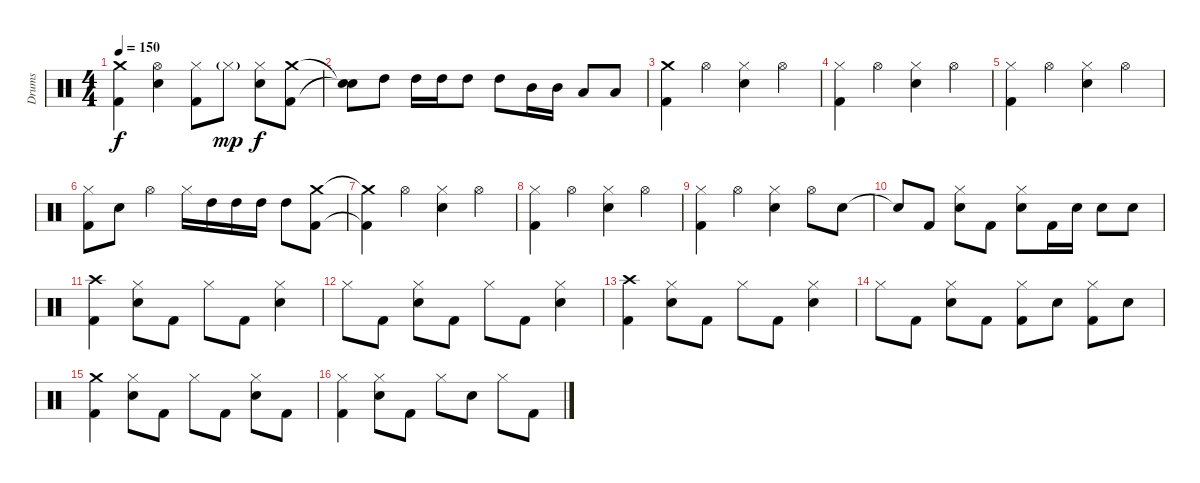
\track ("Drums" "Drums") {instrument percussion}
\staff {score}
\articulation defaults
\ts (4 4)
\tempo 150
\clef neutral
\ks c
("Crash medium (hit)" "Kick (hit) 2").4{dy f} ("Hi-Hat (open)" "Electric Snare (hit)").4 ("Hi-Hat (closed)" "Kick (hit) 2").8 "Hi-Hat (closed)"{g}.8{dy mp} ("Hi-Hat (closed)" "Electric Snare (hit)").8{dy f} ("Crash medium (hit)" "Kick (hit) 2").8 |
("Snare (hit)"{t} "Snare (hit)"{t}).8 "High Tom (hit)".8 "High Tom (hit)".16 "High Tom (hit)".16 "High Tom (hit)".8 "High Tom (hit)".8 "Mid Tom (hit)".16 "Mid Tom (hit)".16 "Low Tom (hit)".8 "Low Tom (hit)".8 |
("Crash medium (hit)" "Kick (hit) 2").4 "Hi-Hat (open)".4 ("Hi-Hat (closed)" "Electric Snare (hit)").4 "Hi-Hat (open)".4 |
("Hi-Hat (closed)" "Kick (hit) 2").4 "Hi-Hat (open)".4 ("Hi-Hat (closed)" "Electric Snare (hit)").4 "Hi-Hat (open)".4 |
("Hi-Hat (closed)" "Kick (hit) 2").4 "Hi-Hat (open)".4 ("Hi-Hat (closed)" "Electric Snare (hit)").4 "Hi-Hat (open)".4 |
("Hi-Hat (closed)" "Kick (hit) 2").8 "Electric Snare (hit)".8 "Hi-Hat (open)".4 "Hi-Hat (closed)".16 "High Tom (hit)".16 "High Tom (hit)".16 "High Tom (hit)".16 "High Tom (hit)".8 ("Crash medium (hit)" "Kick (hit) 2").8 |
("Crash medium (hit)"{t} "Kick (hit) 2"{t}).4 "Hi-Hat (open)".4 ("Hi-Hat (closed)" "Electric Snare (hit)").4 "Hi-Hat (open)".4 |
("Hi-Hat (closed)" "Kick (hit) 2").4 "Hi-Hat (open)".4 ("Hi-Hat (closed)" "Electric Snare (hit)").4 "Hi-Hat (open)".4 |
("Hi-Hat (closed)" "Kick (hit) 2").4 "Hi-Hat (open)".4 ("Hi-Hat (closed)" "Electric Snare (hit)").4 "Hi-Hat (open)".8 "Electric Snare (hit)".8 |
"Snare (hit)"{t}.8 "Kick (hit) 2".8 ("Electric Snare (hit)" "Hi-Hat (closed)").8 "Kick (hit) 2".8 ("Electric Snare (hit)" "Hi-Hat (closed)").8 "Kick (hit) 2".16 "Electric Snare (hit)".16 "Electric Snare (hit)".8 "Electric Snare (hit)".8 |
("Crash high (hit)" "Kick (hit) 2").4 ("Hi-Hat (closed)" "Electric Snare (hit)").8 "Kick (hit) 2".8 "Hi-Hat (closed)".8 "Kick (hit) 2".8 ("Hi-Hat (closed)" "Electric Snare (hit)").4 |
"Hi-Hat (closed)".8 "Kick (hit) 2".8 ("Hi-Hat (closed)" "Electric Snare (hit)").8 "Kick (hit) 2".8 "Hi-Hat (closed)".8 "Kick (hit) 2".8 ("Hi-Hat (closed)" "Electric Snare (hit)").4 |
("Crash high (hit)" "Kick (hit) 2").4 ("Hi-Hat (closed)" "Electric Snare (hit)").8 "Kick (hit) 2".8 "Hi-Hat (closed)".8 "Kick (hit) 2".8 ("Hi-Hat (closed)" "Electric Snare (hit)").4 |
"Hi-Hat (closed)".8 "Kick (hit) 2".8 ("Hi-Hat (closed)" "Electric Snare (hit)").8 "Kick (hit) 2".8 ("Hi-Hat (closed)" "Kick (hit) 2").8 "Electric Snare (hit)".8 ("Hi-Hat (closed)" "Kick (hit) 2").8 "Electric Snare (hit)".8 |
("Crash medium (hit)" "Kick (hit) 2").4 ("Hi-Hat (closed)" "Electric Snare (hit)").8 "Kick (hit) 2".8 "Hi-Hat (closed)".8 "Kick (hit) 2".8 ("Hi-Hat (closed)" "Electric Snare (hit)").8 "Kick (hit) 2".8 |
("Hi-Hat (closed)" "Kick (hit) 2").4 ("Hi-Hat (closed)" "Electric Snare (hit)").8 "Kick (hit) 2".8 "Hi-Hat (closed)".8 "Electric Snare (hit)".8 "Hi-Hat (closed)".8 "Kick (hit) 2".8
